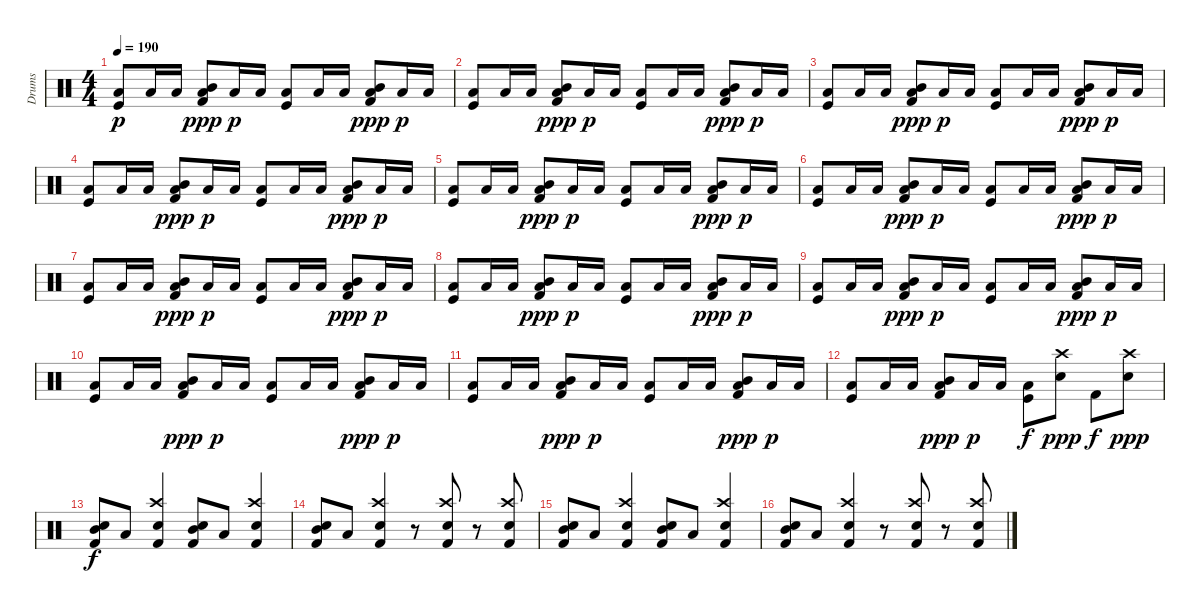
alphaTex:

\track ("Drums" "Drums") {instrument percussion}
\staff {score}
\articulation defaults
\ts (4 4)
\tempo 190
\clef neutral
\ks c
("Kick (hit)" "Low Tom (hit)").8{dy p} "Low Tom (hit)".16 "Low Tom (hit)".16 ("Kick (hit) 2" "Low Tom (hit)" "Mid Tom (hit)").8{dy ppp} "Low Tom (hit)".16{dy p} "Low Tom (hit)".16 ("Kick (hit)" "Low Tom (hit)").8 "Low Tom (hit)".16 "Low Tom (hit)".16 ("Kick (hit) 2" "Mid Tom (hit)" "Low Tom (hit)").8{dy ppp} "Low Tom (hit)".16{dy p} "Low Tom (hit)".16 |
("Kick (hit)" "Low Tom (hit)").8 "Low Tom (hit)".16 "Low Tom (hit)".16 ("Kick (hit) 2" "Low Tom (hit)" "Mid Tom (hit)").8{dy ppp} "Low Tom (hit)".16{dy p} "Low Tom (hit)".16 ("Kick (hit)" "Low Tom (hit)").8 "Low Tom (hit)".16 "Low Tom (hit)".16 ("Kick (hit) 2" "Mid Tom (hit)" "Low Tom (hit)").8{dy ppp} "Low Tom (hit)".16{dy p} "Low Tom (hit)".16 |
("Kick (hit)" "Low Tom (hit)").8 "Low Tom (hit)".16 "Low Tom (hit)".16 ("Kick (hit) 2" "Low Tom (hit)" "Mid Tom (hit)").8{dy ppp} "Low Tom (hit)".16{dy p} "Low Tom (hit)".16 ("Kick (hit)" "Low Tom (hit)").8 "Low Tom (hit)".16 "Low Tom (hit)".16 ("Kick (hit) 2" "Mid Tom (hit)" "Low Tom (hit)").8{dy ppp} "Low Tom (hit)".16{dy p} "Low Tom (hit)".16 |
("Kick (hit)" "Low Tom (hit)").8 "Low Tom (hit)".16 "Low Tom (hit)".16 ("Kick (hit) 2" "Low Tom (hit)" "Mid Tom (hit)").8{dy ppp} "Low Tom (hit)".16{dy p} "Low Tom (hit)".16 ("Kick (hit)" "Low Tom (hit)").8 "Low Tom (hit)".16 "Low Tom (hit)".16 ("Kick (hit) 2" "Mid Tom (hit)" "Low Tom (hit)").8{dy ppp} "Low Tom (hit)".16{dy p} "Low Tom (hit)".16 |
("Kick (hit)" "Low Tom (hit)").8 "Low Tom (hit)".16 "Low Tom (hit)".16 ("Kick (hit) 2" "Low Tom (hit)" "Mid Tom (hit)").8{dy ppp} "Low Tom (hit)".16{dy p} "Low Tom (hit)".16 ("Kick (hit)" "Low Tom (hit)").8 "Low Tom (hit)".16 "Low Tom (hit)".16 ("Kick (hit) 2" "Mid Tom (hit)" "Low Tom (hit)").8{dy ppp} "Low Tom (hit)".16{dy p} "Low Tom (hit)".16 |
("Kick (hit)" "Low Tom (hit)").8 "Low Tom (hit)".16 "Low Tom (hit)".16 ("Kick (hit) 2" "Low Tom (hit)" "Mid Tom (hit)").8{dy ppp} "Low Tom (hit)".16{dy p} "Low Tom (hit)".16 ("Kick (hit)" "Low Tom (hit)").8 "Low Tom (hit)".16 "Low Tom (hit)".16 ("Kick (hit) 2" "Mid Tom (hit)" "Low Tom (hit)").8{dy ppp} "Low Tom (hit)".16{dy p} "Low Tom (hit)".16 |
("Kick (hit)" "Low Tom (hit)").8 "Low Tom (hit)".16 "Low Tom (hit)".16 ("Kick (hit) 2" "Low Tom (hit)" "Mid Tom (hit)").8{dy ppp} "Low Tom (hit)".16{dy p} "Low Tom (hit)".16 ("Kick (hit)" "Low Tom (hit)").8 "Low Tom (hit)".16 "Low Tom (hit)".16 ("Kick (hit) 2" "Mid Tom (hit)" "Low Tom (hit)").8{dy ppp} "Low Tom (hit)".16{dy p} "Low Tom (hit)".16 |
("Kick (hit)" "Low Tom (hit)").8 "Low Tom (hit)".16 "Low Tom (hit)".16 ("Kick (hit) 2" "Low Tom (hit)" "Mid Tom (hit)").8{dy ppp} "Low Tom (hit)".16{dy p} "Low Tom (hit)".16 ("Kick (hit)" "Low Tom (hit)").8 "Low Tom (hit)".16 "Low Tom (hit)".16 ("Kick (hit) 2" "Mid Tom (hit)" "Low Tom (hit)").8{dy ppp} "Low Tom (hit)".16{dy p} "Low Tom (hit)".16 |
("Kick (hit)" "Low Tom (hit)").8 "Low Tom (hit)".16 "Low Tom (hit)".16 ("Kick (hit) 2" "Low Tom (hit)" "Mid Tom (hit)").8{dy ppp} "Low Tom (hit)".16{dy p} "Low Tom (hit)".16 ("Kick (hit)" "Low Tom (hit)").8 "Low Tom (hit)".16 "Low Tom (hit)".16 ("Kick (hit) 2" "Mid Tom (hit)" "Low Tom (hit)").8{dy ppp} "Low Tom (hit)".16{dy p} "Low Tom (hit)".16 |
("Kick (hit)" "Low Tom (hit)").8 "Low Tom (hit)".16 "Low Tom (hit)".16 ("Kick (hit) 2" "Low Tom (hit)" "Mid Tom (hit)").8{dy ppp} "Low Tom (hit)".16{dy p} "Low Tom (hit)".16 ("Kick (hit)" "Low Tom (hit)").8 "Low Tom (hit)".16 "Low Tom (hit)".16 ("Kick (hit) 2" "Mid Tom (hit)" "Low Tom (hit)").8{dy ppp} "Low Tom (hit)".16{dy p} "Low Tom (hit)".16 |
("Kick (hit)" "Low Tom (hit)").8 "Low Tom (hit)".16 "Low Tom (hit)".16 ("Kick (hit) 2" "Low Tom (hit)" "Mid Tom (hit)").8{dy ppp} "Low Tom (hit)".16{dy p} "Low Tom (hit)".16 ("Kick (hit)" "Low Tom (hit)").8 "Low Tom (hit)".16 "Low Tom (hit)".16 ("Kick (hit) 2" "Mid Tom (hit)" "Low Tom (hit)").8{dy ppp} "Low Tom (hit)".16{dy p} "Low Tom (hit)".16 |
("Kick (hit)" "Low Tom (hit)").8 "Low Tom (hit)".16 "Low Tom (hit)".16 ("Kick (hit) 2" "Low Tom (hit)" "Mid Tom (hit)").8{dy ppp} "Low Tom (hit)".16{dy p} "Low Tom (hit)".16 ("Kick (hit)" "Low Tom (hit)").8{dy f} ("Crash high (hit)" "Snare (hit) 2").8{dy ppp} "Kick (hit) 2".8{dy f} ("Electric Snare (hit)" "Crash high (hit)").8{dy ppp} |
("Kick (hit) 2" "Mid Tom (hit)" "Snare (hit) 2").8{dy f} "Low Tom (hit)".8 ("Kick (hit) 2" "Snare (hit) 2" "Crash high (hit)").4 ("Kick (hit) 2" "Mid Tom (hit)" "Snare (hit) 2").8 "Low Tom (hit)".8 ("Kick (hit) 2" "Snare (hit) 2" "Crash high (hit)").4 |
("Kick (hit) 2" "Mid Tom (hit)" "Snare (hit) 2").8 "Low Tom (hit)".8 ("Kick (hit) 2" "Snare (hit) 2" "Crash high (hit)").4 r.8 ("Kick (hit) 2" "Snare (hit) 2" "Crash high (hit)").8 r.8 ("Kick (hit) 2" "Snare (hit) 2" "Crash high (hit)").8 |
("Kick (hit) 2" "Mid Tom (hit)" "Snare (hit) 2").8 "Low Tom (hit)".8 ("Kick (hit) 2" "Snare (hit) 2" "Crash high (hit)").4 ("Kick (hit) 2" "Mid Tom (hit)" "Snare (hit) 2").8 "Low Tom (hit)".8 ("Kick (hit) 2" "Snare (hit) 2" "Crash high (hit)").4 |
("Kick (hit) 2" "Mid Tom (hit)" "Snare (hit) 2").8 "Low Tom (hit)".8 ("Kick (hit) 2" "Snare (hit) 2" "Crash high (hit)").4 r.8 ("Kick (hit) 2" "Snare (hit) 2" "Crash high (hit)").8 r.8 ("Kick (hit) 2" "Snare (hit) 2" "Crash high (hit)").8
